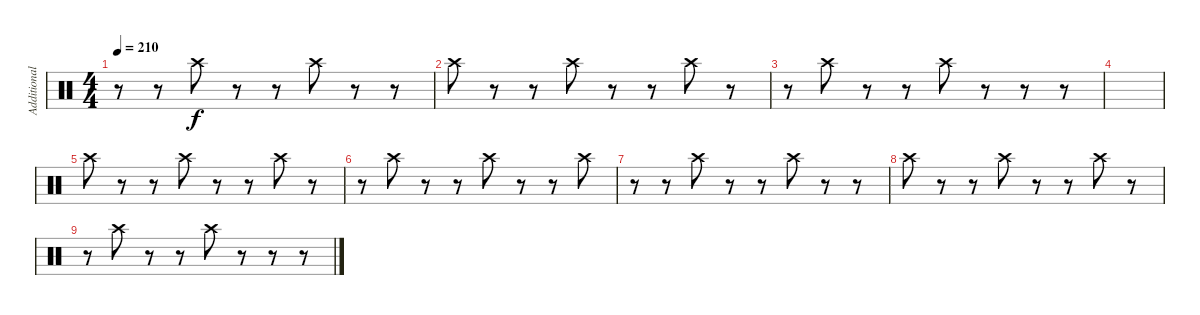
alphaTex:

\track ("Additional drums" "Additional") {instrument percussion}
\staff {score}
\articulation defaults
\ts (4 4)
\tempo 210
\clef neutral
\ks c
r.8{dy f} r.8 "Crash high (hit)".8 r.8 r.8 "Crash high (hit)".8 r.8 r.8 |
"Crash high (hit)".8 r.8 r.8 "Crash high (hit)".8 r.8 r.8 "Crash high (hit)".8 r.8 |
r.8 "Crash high (hit)".8 r.8 r.8 "Crash high (hit)".8 r.8 r.8 r.8 |
|
"Crash high (hit)".8 r.8 r.8 "Crash high (hit)".8 r.8 r.8 "Crash high (hit)".8 r.8 |
r.8 "Crash high (hit)".8 r.8 r.8 "Crash high (hit)".8 r.8 r.8 "Crash high (hit)".8 |
r.8 r.8 "Crash high (hit)".8 r.8 r.8 "Crash high (hit)".8 r.8 r.8 |
"Crash high (hit)".8 r.8 r.8 "Crash high (hit)".8 r.8 r.8 "Crash high (hit)".8 r.8 |
r.8 "Crash high (hit)".8 r.8 r.8 "Crash high (hit)".8 r.8 r.8 r.8
